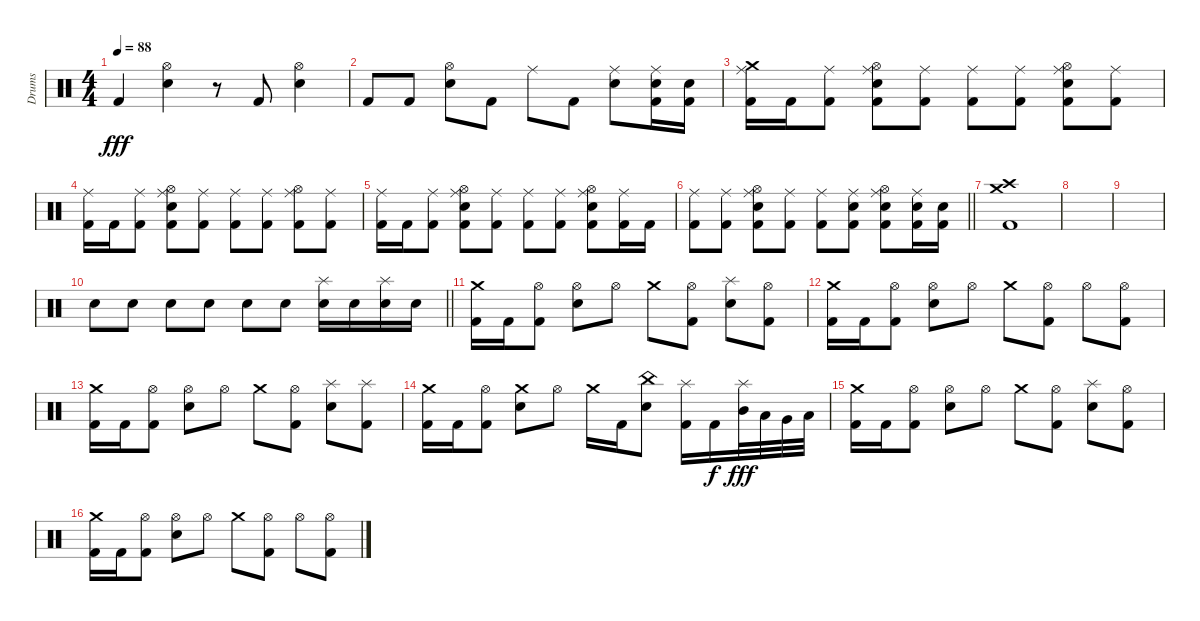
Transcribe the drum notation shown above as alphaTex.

\track ("Drums" "Drums") {instrument percussion}
\staff {score}
\articulation defaults
\ts (4 4)
\tempo 88
\clef neutral
\ks c "Kick (hit) 2".4{dy fff}
("Electric Snare (hit)" "Hi-Hat (open)").4 r.8 "Kick (hit) 2".8 ("Electric Snare (hit)" "Hi-Hat (open)").4 |
"Kick (hit) 2".8 "Kick (hit) 2".8 ("Electric Snare (hit)" "Hi-Hat (open)").8 "Kick (hit) 2".8 "Ride (middle)".8 "Kick (hit) 2".8 ("Electric Snare (hit)" "Ride (middle)").8 ("Kick (hit) 2" "Electric Snare (hit)" "Ride (middle)").16 ("Kick (hit) 2" "Electric Snare (hit)").16 |
("Kick (hit) 2" "Ride (middle)" "Crash medium (hit)").16 "Kick (hit) 2".16 ("Kick (hit) 2" "Ride (middle)").8 ("Kick (hit) 2" "Electric Snare (hit)" "Ride (middle)" "Hi-Hat (open)").8 ("Kick (hit) 2" "Ride (middle)").8 ("Kick (hit) 2" "Ride (middle)").8 ("Kick (hit) 2" "Ride (middle)").8 ("Kick (hit) 2" "Electric Snare (hit)" "Ride (middle)" "Hi-Hat (open)").8 ("Kick (hit) 2" "Ride (middle)").8 |
("Kick (hit) 2" "Ride (middle)").16 "Kick (hit) 2".16 ("Kick (hit) 2" "Ride (middle)").8 ("Kick (hit) 2" "Electric Snare (hit)" "Ride (middle)" "Hi-Hat (open)").8 ("Kick (hit) 2" "Ride (middle)").8 ("Kick (hit) 2" "Ride (middle)").8 ("Kick (hit) 2" "Ride (middle)").8 ("Kick (hit) 2" "Ride (middle)" "Hi-Hat (open)").8 ("Kick (hit) 2" "Ride (middle)").8 |
("Kick (hit) 2" "Ride (middle)").16 "Kick (hit) 2".16 ("Kick (hit) 2" "Ride (middle)").8 ("Kick (hit) 2" "Electric Snare (hit)" "Ride (middle)" "Hi-Hat (open)").8 ("Kick (hit) 2" "Ride (middle)").8 ("Kick (hit) 2" "Ride (middle)").8 ("Kick (hit) 2" "Ride (middle)").8 ("Kick (hit) 2" "Electric Snare (hit)" "Ride (middle)" "Hi-Hat (open)").8 ("Kick (hit) 2" "Ride (middle)").16 "Kick (hit) 2".16 |
\barLineRight lightlight
("Kick (hit) 2" "Ride (middle)").8 ("Kick (hit) 2" "Ride (middle)").8 ("Kick (hit) 2" "Electric Snare (hit)" "Ride (middle)" "Hi-Hat (open)").8 ("Kick (hit) 2" "Ride (middle)").8 ("Kick (hit) 2" "Ride (middle)").8 ("Kick (hit) 2" "Electric Snare (hit)" "Ride (middle)").8 ("Kick (hit) 2" "Electric Snare (hit)" "Ride (middle)" "Hi-Hat (open)").8 ("Kick (hit) 2" "Electric Snare (hit)" "Ride (middle)").16 ("Kick (hit) 2" "Electric Snare (hit)").16 |
("Kick (hit) 2" "Crash high (hit)" "Crash medium (hit)").1 |
|
|
\barLineRight lightlight "Electric Snare (hit)".8{volume 16} "Electric Snare (hit)".8 "Electric Snare (hit)".8 "Electric Snare (hit)".8 "Electric Snare (hit)".8 "Electric Snare (hit)".8
("Electric Snare (hit)" "Splash (hit)").16 "Electric Snare (hit)".16 ("Electric Snare (hit)" "Splash (hit)").16 "Electric Snare (hit)".16 |
("Kick (hit) 2" "Crash medium (hit)").16 "Kick (hit) 2".16 ("Kick (hit) 2" "Hi-Hat (open)").8 ("Electric Snare (hit)" "Hi-Hat (open)").8 "Hi-Hat (open)".8 "Crash medium (hit)".8 ("Kick (hit) 2" "Hi-Hat (open)").8 ("Electric Snare (hit)" "Splash (hit)").8 ("Kick (hit) 2" "Hi-Hat (open)").8 |
("Kick (hit) 2" "Crash medium (hit)").16 "Kick (hit) 2".16 ("Kick (hit) 2" "Hi-Hat (open)").8 ("Electric Snare (hit)" "Hi-Hat (open)").8 "Hi-Hat (open)".8 "Crash medium (hit)".8 ("Kick (hit) 2" "Hi-Hat (open)").8 "Hi-Hat (open)".8 ("Kick (hit) 2" "Hi-Hat (open)").8 |
("Kick (hit) 2" "Crash medium (hit)").16 "Kick (hit) 2".16 ("Kick (hit) 2" "Hi-Hat (open)").8 ("Electric Snare (hit)" "Hi-Hat (open)").8 "Hi-Hat (open)".8 "Crash medium (hit)".8 ("Kick (hit) 2" "Hi-Hat (open)").8 ("Electric Snare (hit)" "Splash (hit)").8 ("Kick (hit) 2" "Splash (hit)").8 |
("Kick (hit) 2" "Crash medium (hit)").16 "Kick (hit) 2".16 ("Kick (hit) 2" "Hi-Hat (open)").8 ("Electric Snare (hit)" "Crash medium (hit)").8 "Hi-Hat (open)".8 "Crash medium (hit)".16 "Kick (hit) 2".16 ("Electric Snare (hit)" "China (hit)").8 ("Kick (hit) 2" "Splash (hit)").16 "Kick (hit) 2".16{dy f} ("Mid Tom (hit)" "Splash (hit)").32{dy fff} "Low Tom (hit)".32 "Very Low Tom (hit)".32 "Low Floor Tom (hit)".32 |
("Kick (hit) 2" "Crash medium (hit)").16 "Kick (hit) 2".16 ("Kick (hit) 2" "Hi-Hat (open)").8 ("Electric Snare (hit)" "Hi-Hat (open)").8 "Hi-Hat (open)".8 "Crash medium (hit)".8 ("Kick (hit) 2" "Hi-Hat (open)").8 ("Electric Snare (hit)" "Splash (hit)").8 ("Kick (hit) 2" "Hi-Hat (open)").8 |
("Kick (hit) 2" "Crash medium (hit)").16 "Kick (hit) 2".16 ("Kick (hit) 2" "Hi-Hat (open)").8 ("Electric Snare (hit)" "Hi-Hat (open)").8 "Hi-Hat (open)".8 "Crash medium (hit)".8 ("Kick (hit) 2" "Hi-Hat (open)").8 "Hi-Hat (open)".8 ("Kick (hit) 2" "Hi-Hat (open)").8
